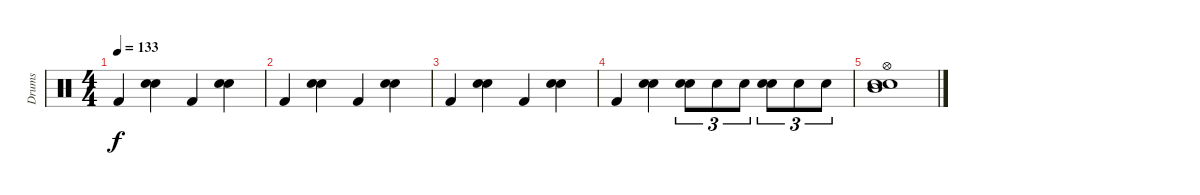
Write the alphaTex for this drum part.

\track ("Drums" "Drums") {instrument percussion}
\staff {score}
\articulation defaults
\ts (4 4)
\tempo 133
\clef neutral
\ks c "Kick (hit) 2".4{dy f}
("Electric Snare (hit)" "Hand Clap (hit)").4 "Kick (hit) 2".4 ("Electric Snare (hit)" "Hand Clap (hit)").4 |
"Kick (hit) 2".4 ("Electric Snare (hit)" "Hand Clap (hit)").4 "Kick (hit) 2".4 ("Electric Snare (hit)" "Hand Clap (hit)").4 |
"Kick (hit) 2".4 ("Electric Snare (hit)" "Hand Clap (hit)").4 "Kick (hit) 2".4 ("Electric Snare (hit)" "Hand Clap (hit)").4 |
"Kick (hit) 2".4 ("Electric Snare (hit)" "Hand Clap (hit)").4 ("Hand Clap (hit)" "Electric Snare (hit)").8{tu (3 2)} "Electric Snare (hit)".8{tu (3 2)} "Electric Snare (hit)".8{tu (3 2)} ("Hand Clap (hit)" "Electric Snare (hit)").8{tu (3 2)} "Electric Snare (hit)".8{tu (3 2)} "Electric Snare (hit)".8{tu (3 2)} |
("Electric Snare (hit)" "Hand Clap (hit)" "Hi-Hat (open)" "Mid Tom (hit)").1
